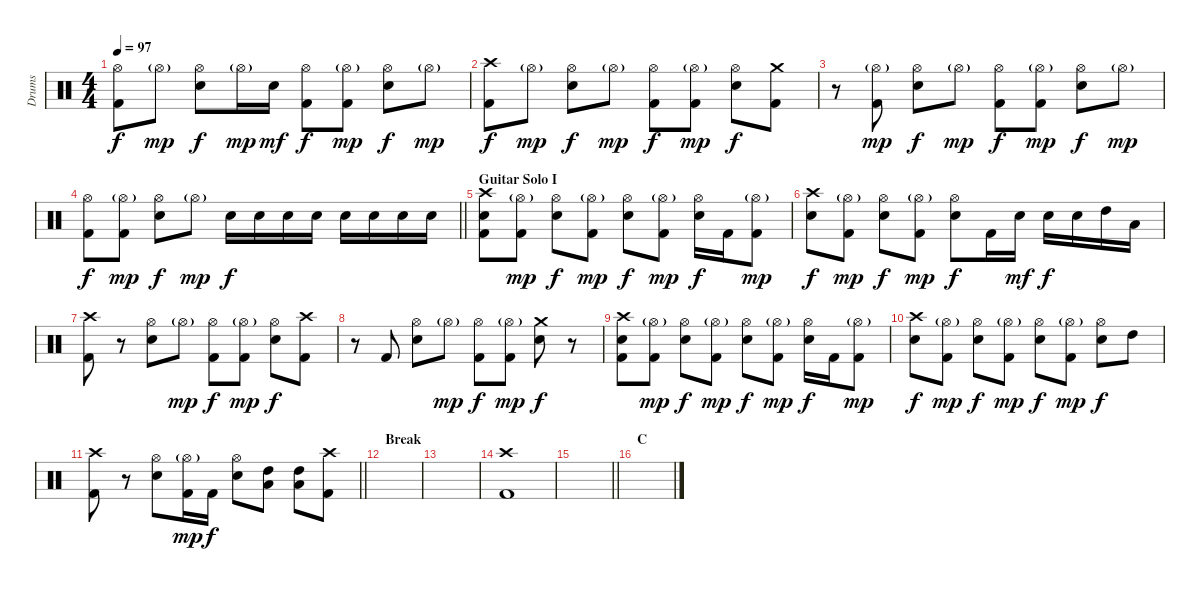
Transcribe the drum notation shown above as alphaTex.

\track ("Drums" "Drums") {instrument percussion}
\staff {score}
\articulation defaults
\ts (4 4)
\tempo 97
\clef neutral
\ks c
("Hi-Hat (open)" "Kick (hit) 2").8{dy f} "Hi-Hat (open)"{g}.8{dy mp} ("Hi-Hat (open)" "Electric Snare (hit)").8{dy f} "Hi-Hat (open)"{g}.16{dy mp} "Electric Snare (hit)".16{dy mf} ("Hi-Hat (open)" "Kick (hit) 2").8{dy f} ("Hi-Hat (open)"{g} "Kick (hit) 2").8{dy mp} ("Hi-Hat (open)" "Electric Snare (hit)").8{dy f} "Hi-Hat (open)"{g}.8{dy mp} |
("Crash high (hit)" "Kick (hit) 2").8{dy f} "Hi-Hat (open)"{g}.8{dy mp} ("Hi-Hat (open)" "Electric Snare (hit)").8{dy f} "Hi-Hat (open)"{g}.8{dy mp} ("Hi-Hat (open)" "Kick (hit) 2").8{dy f} ("Hi-Hat (open)"{g} "Kick (hit) 2").8{dy mp} ("Hi-Hat (open)" "Electric Snare (hit)").8{dy f} ("Crash medium (hit)" "Kick (hit) 2").8 |
r.8 ("Hi-Hat (open)"{g} "Kick (hit) 2").8{dy mp} ("Hi-Hat (open)" "Electric Snare (hit)").8{dy f} "Hi-Hat (open)"{g}.8{dy mp} ("Hi-Hat (open)" "Kick (hit) 2").8{dy f} ("Hi-Hat (open)"{g} "Kick (hit) 2").8{dy mp} ("Hi-Hat (open)" "Electric Snare (hit)").8{dy f} "Hi-Hat (open)"{g}.8{dy mp} |
\barLineRight lightlight
("Hi-Hat (open)" "Kick (hit) 2").8{dy f} ("Hi-Hat (open)"{g} "Kick (hit) 2").8{dy mp} ("Hi-Hat (open)" "Electric Snare (hit)").8{dy f} "Hi-Hat (open)"{g}.8{dy mp} "Electric Snare (hit)".16{dy f} "Electric Snare (hit)".16 "Electric Snare (hit)".16 "Electric Snare (hit)".16 "Electric Snare (hit)".16 "Electric Snare (hit)".16 "Electric Snare (hit)".16 "Electric Snare (hit)".16 |
\section ("" "Guitar Solo I")
("Crash high (hit)" "Electric Snare (hit)" "Kick (hit) 2").8 ("Hi-Hat (open)"{g} "Kick (hit) 2").8{dy mp} ("Hi-Hat (open)" "Electric Snare (hit)").8{dy f} ("Hi-Hat (open)"{g} "Kick (hit) 2").8{dy mp} ("Hi-Hat (open)" "Electric Snare (hit)").8{dy f} ("Hi-Hat (open)"{g} "Kick (hit) 2").8{dy mp} ("Hi-Hat (open)" "Electric Snare (hit)").16{dy f} "Kick (hit) 2".16 ("Hi-Hat (open)"{g} "Kick (hit) 2").8{dy mp} |
("Crash high (hit)" "Electric Snare (hit)").8{dy f} ("Hi-Hat (open)"{g} "Kick (hit) 2").8{dy mp} ("Hi-Hat (open)" "Electric Snare (hit)").8{dy f} ("Hi-Hat (open)"{g} "Kick (hit) 2").8{dy mp} ("Hi-Hat (open)" "Electric Snare (hit)").8{dy f} "Kick (hit) 2".16 "Electric Snare (hit)".16{dy mf} "Electric Snare (hit)".16{dy f} "Electric Snare (hit)".16 "High Tom (hit)".16 "Low Tom (hit)".16 |
("Crash high (hit)" "Kick (hit) 2").8 r.8 ("Hi-Hat (open)" "Electric Snare (hit)").8 "Hi-Hat (open)"{g}.8{dy mp} ("Hi-Hat (open)" "Kick (hit) 2").8{dy f} ("Hi-Hat (open)"{g} "Kick (hit) 2").8{dy mp} ("Hi-Hat (open)" "Electric Snare (hit)").8{dy f} ("Crash high (hit)" "Kick (hit) 2").8 |
r.8 "Kick (hit) 2".8 ("Hi-Hat (open)" "Electric Snare (hit)").8 "Hi-Hat (open)"{g}.8{dy mp} ("Hi-Hat (open)" "Kick (hit) 2").8{dy f} ("Hi-Hat (open)"{g} "Kick (hit) 2").8{dy mp} ("Crash medium (hit)" "Electric Snare (hit)").8{dy f} r.8 |
("Crash high (hit)" "Electric Snare (hit)" "Kick (hit) 2").8 ("Hi-Hat (open)"{g} "Kick (hit) 2").8{dy mp} ("Hi-Hat (open)" "Electric Snare (hit)").8{dy f} ("Hi-Hat (open)"{g} "Kick (hit) 2").8{dy mp} ("Hi-Hat (open)" "Electric Snare (hit)").8{dy f} ("Hi-Hat (open)"{g} "Kick (hit) 2").8{dy mp} ("Hi-Hat (open)" "Electric Snare (hit)").16{dy f} "Kick (hit) 2".16 ("Hi-Hat (open)"{g} "Kick (hit) 2").8{dy mp} |
("Crash high (hit)" "Electric Snare (hit)").8{dy f} ("Hi-Hat (open)"{g} "Kick (hit) 2").8{dy mp} ("Hi-Hat (open)" "Electric Snare (hit)").8{dy f} ("Hi-Hat (open)"{g} "Kick (hit) 2").8{dy mp} ("Hi-Hat (open)" "Electric Snare (hit)").8{dy f} ("Hi-Hat (open)"{g} "Kick (hit) 2").8{dy mp} ("Hi-Hat (open)" "Electric Snare (hit)").8{dy f} "High Tom (hit)".8 |
\barLineRight lightlight
("Crash high (hit)" "Kick (hit) 2").8 r.8 ("Hi-Hat (open)" "Electric Snare (hit)").8 ("Hi-Hat (open)"{g} "Kick (hit) 2").16{dy mp} "Kick (hit) 2".16{dy f} ("Hi-Hat (open)" "Electric Snare (hit)").8 ("Low Tom (hit)" "High Tom (hit)").8 ("Low Tom (hit)" "High Tom (hit)").8 ("Crash high (hit)" "Kick (hit) 2").8 |
\section ("" "Break")
|
|
("Crash high (hit)" "Kick (hit) 2").1 |
\barLineRight lightlight
|
\section ("" "C")
